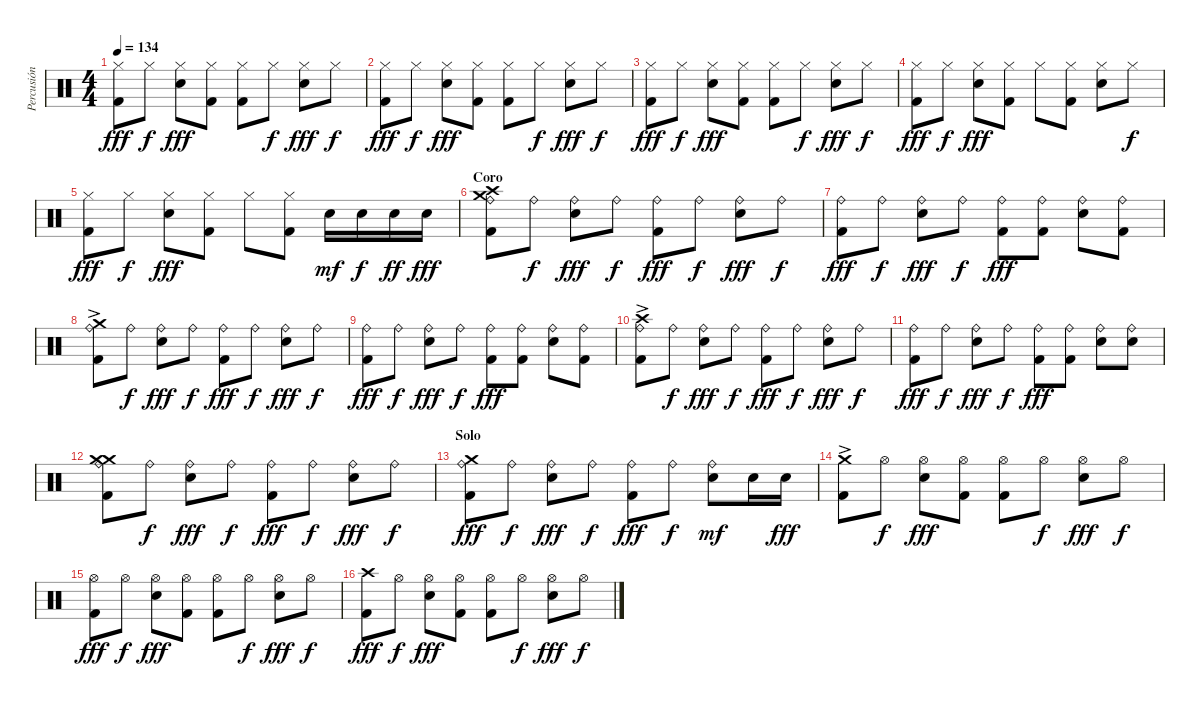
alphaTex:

\track ("Percusión" "Percusión") {instrument percussion}
\staff {score}
\articulation defaults
\ts (4 4)
\tempo 134
\clef neutral
\ks c
("Hi-Hat (closed)" "Kick (hit) 2").8{dy fff} "Hi-Hat (closed)".8{dy f} ("Hi-Hat (closed)" "Electric Snare (hit)").8{dy fff} ("Hi-Hat (closed)" "Kick (hit) 2").8 ("Hi-Hat (closed)" "Kick (hit) 2").8 "Hi-Hat (closed)".8{dy f} ("Hi-Hat (closed)" "Electric Snare (hit)").8{dy fff} "Hi-Hat (closed)".8{dy f} |
("Hi-Hat (closed)" "Kick (hit) 2").8{dy fff} "Hi-Hat (closed)".8{dy f} ("Hi-Hat (closed)" "Electric Snare (hit)").8{dy fff} ("Hi-Hat (closed)" "Kick (hit) 2").8 ("Hi-Hat (closed)" "Kick (hit) 2").8 "Hi-Hat (closed)".8{dy f} ("Hi-Hat (closed)" "Electric Snare (hit)").8{dy fff} "Hi-Hat (closed)".8{dy f} |
("Hi-Hat (closed)" "Kick (hit) 2").8{dy fff} "Hi-Hat (closed)".8{dy f} ("Hi-Hat (closed)" "Electric Snare (hit)").8{dy fff} ("Hi-Hat (closed)" "Kick (hit) 2").8 ("Hi-Hat (closed)" "Kick (hit) 2").8 "Hi-Hat (closed)".8{dy f} ("Hi-Hat (closed)" "Electric Snare (hit)").8{dy fff} "Hi-Hat (closed)".8{dy f} |
("Hi-Hat (closed)" "Kick (hit) 2").8{dy fff} "Hi-Hat (closed)".8{dy f} ("Hi-Hat (closed)" "Electric Snare (hit)").8{dy fff} ("Hi-Hat (closed)" "Kick (hit) 2").8 "Hi-Hat (closed)".8 ("Hi-Hat (closed)" "Kick (hit) 2").8 ("Hi-Hat (closed)" "Electric Snare (hit)").8 "Hi-Hat (closed)".8{dy f} |
("Hi-Hat (closed)" "Kick (hit) 2").8{dy fff} "Hi-Hat (closed)".8{dy f} ("Hi-Hat (closed)" "Electric Snare (hit)").8{dy fff} ("Hi-Hat (closed)" "Kick (hit) 2").8 "Hi-Hat (closed)".8 ("Hi-Hat (closed)" "Kick (hit) 2").8 "Electric Snare (hit)".16{dy mf} "Electric Snare (hit)".16{dy f} "Electric Snare (hit)".16{dy ff} "Electric Snare (hit)".16{dy fff} |
\section ("" "Coro")
("Crash medium (hit)" "Crash high (hit)" "Ride (bell)" "Kick (hit) 2").8 "Ride (bell)".8{dy f} ("Ride (bell)" "Electric Snare (hit)").8{dy fff} "Ride (bell)".8{dy f} ("Ride (bell)" "Kick (hit) 2").8{dy fff} "Ride (bell)".8{dy f} ("Ride (bell)" "Electric Snare (hit)").8{dy fff} "Ride (bell)".8{dy f} |
("Ride (bell)" "Kick (hit) 2").8{dy fff} "Ride (bell)".8{dy f} ("Ride (bell)" "Electric Snare (hit)").8{dy fff} "Ride (bell)".8{dy f} ("Ride (bell)" "Kick (hit) 2").8{dy fff} ("Ride (bell)" "Kick (hit) 2").8 ("Ride (bell)" "Electric Snare (hit)").8 ("Ride (bell)" "Kick (hit) 2").8 |
("Crash medium (hit)"{ac} "Ride (bell)" "Kick (hit) 2").8 "Ride (bell)".8{dy f} ("Ride (bell)" "Electric Snare (hit)").8{dy fff} "Ride (bell)".8{dy f} ("Ride (bell)" "Kick (hit) 2").8{dy fff} "Ride (bell)".8{dy f} ("Ride (bell)" "Electric Snare (hit)").8{dy fff} "Ride (bell)".8{dy f} |
("Ride (bell)" "Kick (hit) 2").8{dy fff} "Ride (bell)".8{dy f} ("Ride (bell)" "Electric Snare (hit)").8{dy fff} "Ride (bell)".8{dy f} ("Ride (bell)" "Kick (hit) 2").8{dy fff} ("Ride (bell)" "Kick (hit) 2").8 ("Ride (bell)" "Electric Snare (hit)").8 ("Ride (bell)" "Kick (hit) 2").8 |
("Crash high (hit)"{ac} "Ride (bell)" "Kick (hit) 2").8 "Ride (bell)".8{dy f} ("Ride (bell)" "Electric Snare (hit)").8{dy fff} "Ride (bell)".8{dy f} ("Ride (bell)" "Kick (hit) 2").8{dy fff} "Ride (bell)".8{dy f} ("Ride (bell)" "Electric Snare (hit)").8{dy fff} "Ride (bell)".8{dy f} |
("Ride (bell)" "Kick (hit) 2").8{dy fff} "Ride (bell)".8{dy f} ("Ride (bell)" "Electric Snare (hit)").8{dy fff} "Ride (bell)".8{dy f} ("Ride (bell)" "Kick (hit) 2").8{dy fff} ("Ride (bell)" "Kick (hit) 2").8 ("Ride (bell)" "Electric Snare (hit)").8 ("Ride (bell)" "Electric Snare (hit)").8 |
("Crash medium (hit)" "Crash medium (hit)" "Ride (bell)" "Kick (hit) 2").8 "Ride (bell)".8{dy f} ("Ride (bell)" "Electric Snare (hit)").8{dy fff} "Ride (bell)".8{dy f} ("Ride (bell)" "Kick (hit) 2").8{dy fff} "Ride (bell)".8{dy f} ("Ride (bell)" "Electric Snare (hit)").8{dy fff} "Ride (bell)".8{dy f} |
\section ("" "Solo")
("Crash medium (hit)" "Ride (bell)" "Kick (hit) 2").8{dy fff} "Ride (bell)".8{dy f} ("Ride (bell)" "Electric Snare (hit)").8{dy fff} "Ride (bell)".8{dy f} ("Ride (bell)" "Kick (hit) 2").8{dy fff} "Ride (bell)".8{dy f} ("Ride (bell)" "Electric Snare (hit)").8{dy mf} "Electric Snare (hit)".16 "Electric Snare (hit)".16{dy fff} |
("Crash medium (hit)"{ac} "Kick (hit) 2").8 "Hi-Hat (open)".8{dy f} ("Hi-Hat (open)" "Electric Snare (hit)").8{dy fff} ("Hi-Hat (open)" "Kick (hit) 2").8 ("Hi-Hat (open)" "Kick (hit) 2").8 "Hi-Hat (open)".8{dy f} ("Hi-Hat (open)" "Electric Snare (hit)").8{dy fff} "Hi-Hat (open)".8{dy f} |
("Hi-Hat (open)" "Kick (hit) 2").8{dy fff} "Hi-Hat (open)".8{dy f} ("Hi-Hat (open)" "Electric Snare (hit)").8{dy fff} ("Hi-Hat (open)" "Kick (hit) 2").8 ("Hi-Hat (open)" "Kick (hit) 2").8 "Hi-Hat (open)".8{dy f} ("Hi-Hat (open)" "Electric Snare (hit)").8{dy fff} "Hi-Hat (open)".8{dy f} |
("Crash high (hit)" "Kick (hit) 2").8{dy fff} "Hi-Hat (open)".8{dy f} ("Hi-Hat (open)" "Electric Snare (hit)").8{dy fff} ("Hi-Hat (open)" "Kick (hit) 2").8 ("Hi-Hat (open)" "Kick (hit) 2").8 "Hi-Hat (open)".8{dy f} ("Hi-Hat (open)" "Electric Snare (hit)").8{dy fff} "Hi-Hat (open)".8{dy f}
